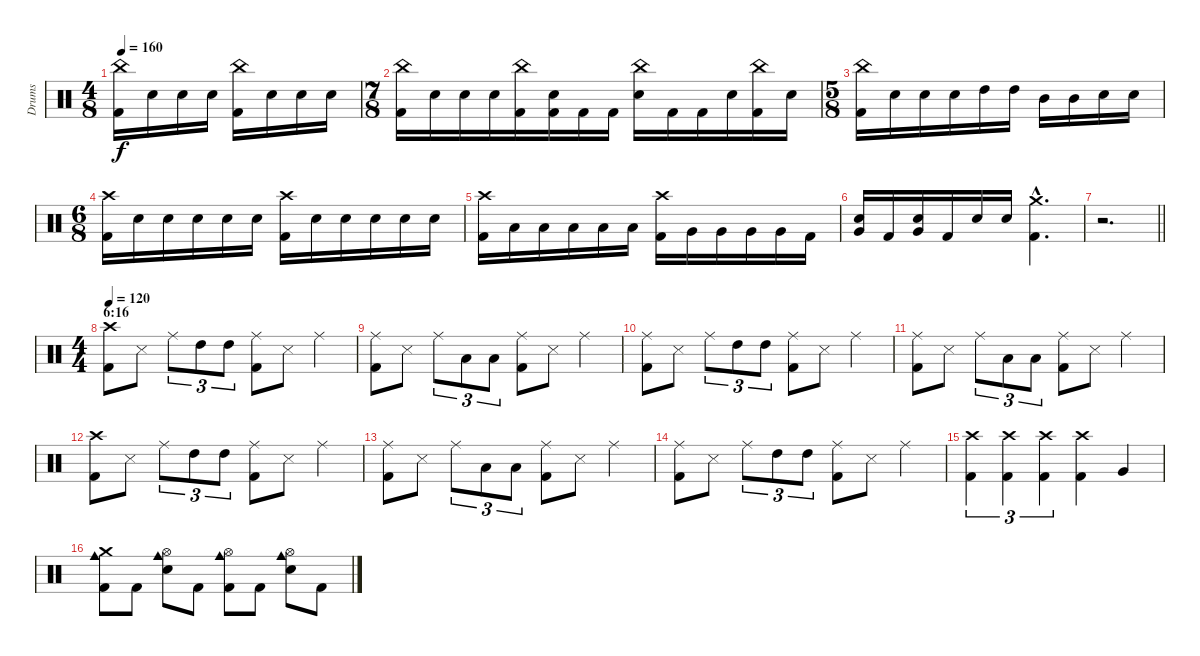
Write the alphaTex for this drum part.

\track ("Drums" "Drums") {instrument percussion}
\staff {score}
\articulation defaults
\ts (4 8)
\tempo 160
\clef neutral
\ks c
("China (hit)" "Kick (hit) 2").16{dy f} "Electric Snare (hit)".16 "Electric Snare (hit)".16 "Electric Snare (hit)".16 ("China (hit)" "Kick (hit) 2").16 "Electric Snare (hit)".16 "Electric Snare (hit)".16 "Electric Snare (hit)".16 |
\ts (7 8)
("China (hit)" "Kick (hit) 2").16 "Electric Snare (hit)".16 "Electric Snare (hit)".16 "Electric Snare (hit)".16 ("China (hit)" "Kick (hit) 2").16 ("Electric Snare (hit)" "Kick (hit) 2").16 "Kick (hit) 2".16 "Kick (hit) 2".16 ("China (hit)" "Electric Snare (hit)").16 "Kick (hit) 2".16 "Kick (hit) 2".16 "Electric Snare (hit)".16 ("China (hit)" "Kick (hit) 2").16 "Electric Snare (hit)".16 |
\ts (5 8)
("China (hit)" "Kick (hit) 2").16 "Electric Snare (hit)".16 "Electric Snare (hit)".16 "Electric Snare (hit)".16 "High Tom (hit)".16 "High Tom (hit)".16 "Mid Tom (hit)".16 "Mid Tom (hit)".16 "Electric Snare (hit)".16 "Electric Snare (hit)".16 |
\ts (6 8)
("Crash high (hit)" "Kick (hit) 2").16 "Electric Snare (hit)".16 "Electric Snare (hit)".16 "Electric Snare (hit)".16 "Electric Snare (hit)".16 "Electric Snare (hit)".16 ("Crash high (hit)" "Kick (hit) 2").16 "Electric Snare (hit)".16 "Electric Snare (hit)".16 "Electric Snare (hit)".16 "Electric Snare (hit)".16 "Electric Snare (hit)".16 |
("Crash high (hit)" "Kick (hit) 2").16 "Low Tom (hit)".16 "Low Tom (hit)".16 "Low Tom (hit)".16 "Low Tom (hit)".16 "Low Tom (hit)".16 ("Crash high (hit)" "Kick (hit) 2").16 "Very Low Tom (hit)".16 "Very Low Tom (hit)".16 "Very Low Tom (hit)".16 "Very Low Tom (hit)".16 "Kick (hit) 2".16 |
("Electric Snare (hit)" "Very Low Tom (hit)").16 "Kick (hit) 2".16 ("Electric Snare (hit)" "Very Low Tom (hit)").16 "Kick (hit) 2".16 "Electric Snare (hit)".16 "Electric Snare (hit)".16 ("Crash medium (hit)"{hac} "Kick (hit) 2"{hac}).4{d} |
\barLineRight lightlight
r.2{d} |
\ts (4 4)
\section ("" "6:16")
\tempo 120
("Crash high (hit)" "Kick (hit) 2").8 "Snare (side stick) 3".8 "Ride (middle)".8{tu (3 2)} "High Tom (hit)".8{tu (3 2)} "High Tom (hit)".8{tu (3 2)} ("Ride (middle)" "Kick (hit) 2").8 "Snare (side stick) 3".8 "Ride (middle)".4 |
("Ride (middle)" "Kick (hit) 2").8 "Snare (side stick) 3".8 "Ride (middle)".8{tu (3 2)} "Low Tom (hit)".8{tu (3 2)} "Low Tom (hit)".8{tu (3 2)} ("Ride (middle)" "Kick (hit) 2").8 "Snare (side stick) 3".8 "Ride (middle)".4 |
("Ride (middle)" "Kick (hit) 2").8 "Snare (side stick) 3".8 "Ride (middle)".8{tu (3 2)} "High Tom (hit)".8{tu (3 2)} "High Tom (hit)".8{tu (3 2)} ("Ride (middle)" "Kick (hit) 2").8 "Snare (side stick) 3".8 "Ride (middle)".4 |
("Ride (middle)" "Kick (hit) 2").8 "Snare (side stick) 3".8 "Ride (middle)".8{tu (3 2)} "Low Tom (hit)".8{tu (3 2)} "Low Tom (hit)".8{tu (3 2)} ("Ride (middle)" "Kick (hit) 2").8 "Snare (side stick) 3".8 "Ride (middle)".4 |
("Crash high (hit)" "Kick (hit) 2").8 "Snare (side stick) 3".8 "Ride (middle)".8{tu (3 2)} "High Tom (hit)".8{tu (3 2)} "High Tom (hit)".8{tu (3 2)} ("Ride (middle)" "Kick (hit) 2").8 "Snare (side stick) 3".8 "Ride (middle)".4 |
("Ride (middle)" "Kick (hit) 2").8 "Snare (side stick) 3".8 "Ride (middle)".8{tu (3 2)} "Low Tom (hit)".8{tu (3 2)} "Low Tom (hit)".8{tu (3 2)} ("Ride (middle)" "Kick (hit) 2").8 "Snare (side stick) 3".8 "Ride (middle)".4 |
("Ride (middle)" "Kick (hit) 2").8 "Snare (side stick) 3".8 "Ride (middle)".8{tu (3 2)} "High Tom (hit)".8{tu (3 2)} "High Tom (hit)".8{tu (3 2)} ("Ride (middle)" "Kick (hit) 2").8 "Snare (side stick) 3".8 "Ride (middle)".4 |
("Crash high (hit)" "Kick (hit) 2").4{tu (3 2)} ("Crash high (hit)" "Kick (hit) 2").4{tu (3 2)} ("Crash high (hit)" "Kick (hit) 2").4{tu (3 2)} ("Crash high (hit)" "Kick (hit) 2").4 "Very Low Tom (hit)".4 |
("Crash medium (hit)" "Cowbell medium (hit)" "Kick (hit) 2").8 "Kick (hit) 2".8 ("Hi-Hat (open)" "Cowbell medium (hit)" "Electric Snare (hit)").8 "Kick (hit) 2".8 ("Hi-Hat (open)" "Cowbell medium (hit)" "Kick (hit) 2").8 "Kick (hit) 2".8 ("Hi-Hat (open)" "Cowbell medium (hit)" "Electric Snare (hit)").8 "Kick (hit) 2".8
